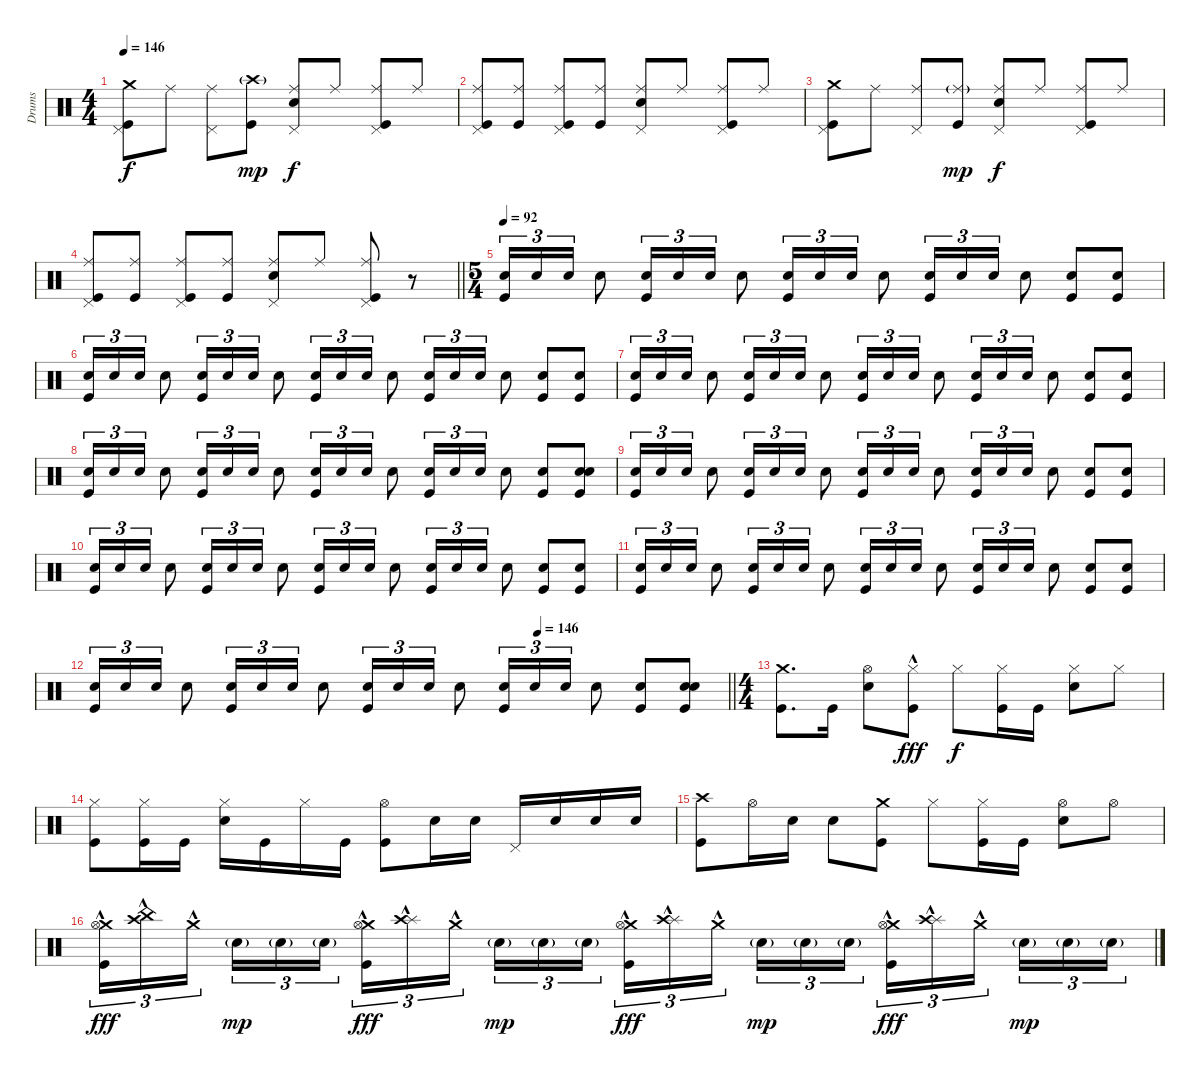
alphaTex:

\track ("Drums" "Drums") {instrument percussion}
\staff {score}
\articulation defaults
\ts (4 4)
\tempo 146
\clef neutral
\ks c
("Crash medium (hit)" "Pedal Hi-Hat (hit)" "Kick (hit)").8{dy f} "Ride (middle)".8 ("Ride (middle)" "Pedal Hi-Hat (hit)").8 ("Crash high (hit)"{g} "Kick (hit)").8{dy mp} ("Ride (middle)" "Pedal Hi-Hat (hit)" "Electric Snare (hit)").8{dy f} "Ride (middle)".8 ("Ride (middle)" "Pedal Hi-Hat (hit)" "Kick (hit)").8 "Ride (middle)".8 |
("Ride (middle)" "Pedal Hi-Hat (hit)" "Kick (hit)").8 ("Ride (middle)" "Kick (hit)").8 ("Ride (middle)" "Pedal Hi-Hat (hit)" "Kick (hit)").8 ("Ride (middle)" "Kick (hit)").8 ("Ride (middle)" "Pedal Hi-Hat (hit)" "Electric Snare (hit)").8 "Ride (middle)".8 ("Ride (middle)" "Pedal Hi-Hat (hit)" "Kick (hit)").8 "Ride (middle)".8 |
("Crash medium (hit)" "Pedal Hi-Hat (hit)" "Kick (hit)").8 "Ride (middle)".8 ("Ride (middle)" "Pedal Hi-Hat (hit)").8 ("Ride (middle)"{g} "Kick (hit)").8{dy mp} ("Ride (middle)" "Pedal Hi-Hat (hit)" "Electric Snare (hit)").8{dy f} "Ride (middle)".8 ("Ride (middle)" "Pedal Hi-Hat (hit)" "Kick (hit)").8 "Ride (middle)".8 |
\barLineRight lightlight
("Ride (middle)" "Pedal Hi-Hat (hit)" "Kick (hit)").8 ("Ride (middle)" "Kick (hit)").8 ("Ride (middle)" "Pedal Hi-Hat (hit)" "Kick (hit)").8 ("Ride (middle)" "Kick (hit)").8 ("Ride (middle)" "Pedal Hi-Hat (hit)" "Electric Snare (hit)").8 "Ride (middle)".8 ("Ride (middle)" "Pedal Hi-Hat (hit)" "Kick (hit)").8 r.8 |
\ts (5 4)
\tempo 92
("Electric Snare (hit)" "Kick (hit)").16{tu (3 2)} "Electric Snare (hit)".16{tu (3 2)} "Electric Snare (hit)".16{tu (3 2)} "Electric Snare (hit)".8 ("Electric Snare (hit)" "Kick (hit)").16{tu (3 2)} "Electric Snare (hit)".16{tu (3 2)} "Electric Snare (hit)".16{tu (3 2)} "Electric Snare (hit)".8 ("Electric Snare (hit)" "Kick (hit)").16{tu (3 2)} "Electric Snare (hit)".16{tu (3 2)} "Electric Snare (hit)".16{tu (3 2)} "Electric Snare (hit)".8 ("Electric Snare (hit)" "Kick (hit)").16{tu (3 2)} "Electric Snare (hit)".16{tu (3 2)} "Electric Snare (hit)".16{tu (3 2)} "Electric Snare (hit)".8 ("Electric Snare (hit)" "Kick (hit)").8 ("Electric Snare (hit)" "Kick (hit)").8 |
("Electric Snare (hit)" "Kick (hit)").16{tu (3 2)} "Electric Snare (hit)".16{tu (3 2)} "Electric Snare (hit)".16{tu (3 2)} "Electric Snare (hit)".8 ("Electric Snare (hit)" "Kick (hit)").16{tu (3 2)} "Electric Snare (hit)".16{tu (3 2)} "Electric Snare (hit)".16{tu (3 2)} "Electric Snare (hit)".8 ("Electric Snare (hit)" "Kick (hit)").16{tu (3 2)} "Electric Snare (hit)".16{tu (3 2)} "Electric Snare (hit)".16{tu (3 2)} "Electric Snare (hit)".8 ("Electric Snare (hit)" "Kick (hit)").16{tu (3 2)} "Electric Snare (hit)".16{tu (3 2)} "Electric Snare (hit)".16{tu (3 2)} "Electric Snare (hit)".8 ("Electric Snare (hit)" "Kick (hit)").8 ("Electric Snare (hit)" "Kick (hit)").8 |
("Electric Snare (hit)" "Kick (hit)").16{tu (3 2)} "Electric Snare (hit)".16{tu (3 2)} "Electric Snare (hit)".16{tu (3 2)} "Electric Snare (hit)".8 ("Electric Snare (hit)" "Kick (hit)").16{tu (3 2)} "Electric Snare (hit)".16{tu (3 2)} "Electric Snare (hit)".16{tu (3 2)} "Electric Snare (hit)".8 ("Electric Snare (hit)" "Kick (hit)").16{tu (3 2)} "Electric Snare (hit)".16{tu (3 2)} "Electric Snare (hit)".16{tu (3 2)} "Electric Snare (hit)".8 ("Electric Snare (hit)" "Kick (hit)").16{tu (3 2)} "Electric Snare (hit)".16{tu (3 2)} "Electric Snare (hit)".16{tu (3 2)} "Electric Snare (hit)".8 ("Electric Snare (hit)" "Kick (hit)").8 ("Electric Snare (hit)" "Kick (hit)").8 |
("Electric Snare (hit)" "Kick (hit)").16{tu (3 2)} "Electric Snare (hit)".16{tu (3 2)} "Electric Snare (hit)".16{tu (3 2)} "Electric Snare (hit)".8 ("Electric Snare (hit)" "Kick (hit)").16{tu (3 2)} "Electric Snare (hit)".16{tu (3 2)} "Electric Snare (hit)".16{tu (3 2)} "Electric Snare (hit)".8 ("Electric Snare (hit)" "Kick (hit)").16{tu (3 2)} "Electric Snare (hit)".16{tu (3 2)} "Electric Snare (hit)".16{tu (3 2)} "Electric Snare (hit)".8 ("Electric Snare (hit)" "Kick (hit)").16{tu (3 2)} "Electric Snare (hit)".16{tu (3 2)} "Electric Snare (hit)".16{tu (3 2)} "Electric Snare (hit)".8 ("Electric Snare (hit)" "Kick (hit)").8 ("Electric Snare (hit)" "Electric Snare (hit)" "Kick (hit)").8 |
("Electric Snare (hit)" "Kick (hit)").16{tu (3 2)} "Electric Snare (hit)".16{tu (3 2)} "Electric Snare (hit)".16{tu (3 2)} "Electric Snare (hit)".8 ("Electric Snare (hit)" "Kick (hit)").16{tu (3 2)} "Electric Snare (hit)".16{tu (3 2)} "Electric Snare (hit)".16{tu (3 2)} "Electric Snare (hit)".8 ("Electric Snare (hit)" "Kick (hit)").16{tu (3 2)} "Electric Snare (hit)".16{tu (3 2)} "Electric Snare (hit)".16{tu (3 2)} "Electric Snare (hit)".8 ("Electric Snare (hit)" "Kick (hit)").16{tu (3 2)} "Electric Snare (hit)".16{tu (3 2)} "Electric Snare (hit)".16{tu (3 2)} "Electric Snare (hit)".8 ("Electric Snare (hit)" "Kick (hit)").8 ("Electric Snare (hit)" "Kick (hit)").8 |
("Electric Snare (hit)" "Kick (hit)").16{tu (3 2)} "Electric Snare (hit)".16{tu (3 2)} "Electric Snare (hit)".16{tu (3 2)} "Electric Snare (hit)".8 ("Electric Snare (hit)" "Kick (hit)").16{tu (3 2)} "Electric Snare (hit)".16{tu (3 2)} "Electric Snare (hit)".16{tu (3 2)} "Electric Snare (hit)".8 ("Electric Snare (hit)" "Kick (hit)").16{tu (3 2)} "Electric Snare (hit)".16{tu (3 2)} "Electric Snare (hit)".16{tu (3 2)} "Electric Snare (hit)".8 ("Electric Snare (hit)" "Kick (hit)").16{tu (3 2)} "Electric Snare (hit)".16{tu (3 2)} "Electric Snare (hit)".16{tu (3 2)} "Electric Snare (hit)".8 ("Electric Snare (hit)" "Kick (hit)").8 ("Electric Snare (hit)" "Kick (hit)").8 |
("Electric Snare (hit)" "Kick (hit)").16{tu (3 2)} "Electric Snare (hit)".16{tu (3 2)} "Electric Snare (hit)".16{tu (3 2)} "Electric Snare (hit)".8 ("Electric Snare (hit)" "Kick (hit)").16{tu (3 2)} "Electric Snare (hit)".16{tu (3 2)} "Electric Snare (hit)".16{tu (3 2)} "Electric Snare (hit)".8 ("Electric Snare (hit)" "Kick (hit)").16{tu (3 2)} "Electric Snare (hit)".16{tu (3 2)} "Electric Snare (hit)".16{tu (3 2)} "Electric Snare (hit)".8 ("Electric Snare (hit)" "Kick (hit)").16{tu (3 2)} "Electric Snare (hit)".16{tu (3 2)} "Electric Snare (hit)".16{tu (3 2)} "Electric Snare (hit)".8 ("Electric Snare (hit)" "Kick (hit)").8 ("Electric Snare (hit)" "Kick (hit)").8 |
\tempo (146 0.7)
\barLineRight lightlight
("Electric Snare (hit)" "Kick (hit)").16{tu (3 2)} "Electric Snare (hit)".16{tu (3 2)} "Electric Snare (hit)".16{tu (3 2)} "Electric Snare (hit)".8 ("Electric Snare (hit)" "Kick (hit)").16{tu (3 2)} "Electric Snare (hit)".16{tu (3 2)} "Electric Snare (hit)".16{tu (3 2)} "Electric Snare (hit)".8 ("Electric Snare (hit)" "Kick (hit)").16{tu (3 2)} "Electric Snare (hit)".16{tu (3 2)} "Electric Snare (hit)".16{tu (3 2)} "Electric Snare (hit)".8 ("Electric Snare (hit)" "Kick (hit)").16{tu (3 2)} "Electric Snare (hit)".16{tu (3 2)} "Electric Snare (hit)".16{tu (3 2)} "Electric Snare (hit)".8 ("Electric Snare (hit)" "Kick (hit)").8 ("Electric Snare (hit)" "Electric Snare (hit)" "Kick (hit)").8 |
\ts (4 4)
("Crash medium (hit)" "Kick (hit)").8{d} "Kick (hit)".16 ("Hi-Hat (open)" "Electric Snare (hit)").8 ("Hi-Hat (closed)"{hac} "Kick (hit)"{hac}).8{dy fff} "Hi-Hat (closed)".8{dy f} ("Hi-Hat (closed)" "Kick (hit)").16 "Kick (hit)".16 ("Hi-Hat (closed)" "Electric Snare (hit)").8 "Hi-Hat (closed)".8 |
("Hi-Hat (closed)" "Kick (hit)").8 ("Hi-Hat (closed)" "Kick (hit)").16 "Kick (hit)".16 ("Hi-Hat (closed)" "Electric Snare (hit)").16 "Kick (hit)".16 "Hi-Hat (closed)".16 "Kick (hit)".16 ("Hi-Hat (open)" "Kick (hit)").8 "Electric Snare (hit)".16 "Electric Snare (hit)".16 "Pedal Hi-Hat (hit)".16 "Electric Snare (hit)".16 "Electric Snare (hit)".16 "Electric Snare (hit)".16 |
("Crash high (hit)" "Kick (hit)").8 "Hi-Hat (open)".16 "Electric Snare (hit)".16 "Electric Snare (hit)".8 ("Crash medium (hit)" "Kick (hit)").8 "Hi-Hat (closed)".8 ("Hi-Hat (closed)" "Kick (hit)").16 "Kick (hit)".16 ("Hi-Hat (open)" "Electric Snare (hit)").8 "Hi-Hat (open)".8 |
("Crash medium (hit)"{hac} "Hi-Hat (open)"{hac} "Kick (hit)"{hac}).16{tu (3 2) dy fff} ("China (hit)"{hac} "Crash high (hit)"{hac}).16{tu (3 2)} "Crash medium (hit)"{hac}.16{tu (3 2) beam splitsecondary} "Electric Snare (hit)"{g}.16{tu (3 2) dy mp} "Electric Snare (hit)"{g}.16{tu (3 2)} "Electric Snare (hit)"{g}.16{tu (3 2)} ("Crash medium (hit)"{hac} "Hi-Hat (open)"{hac} "Kick (hit)"{hac}).16{tu (3 2) dy fff} ("Splash (hit)"{hac} "Crash high (hit)"{hac}).16{tu (3 2)} "Crash medium (hit)"{hac}.16{tu (3 2) beam splitsecondary} "Electric Snare (hit)"{g}.16{tu (3 2) dy mp} "Electric Snare (hit)"{g}.16{tu (3 2)} "Electric Snare (hit)"{g}.16{tu (3 2)} ("Crash medium (hit)"{hac} "Hi-Hat (open)"{hac} "Kick (hit)"{hac}).16{tu (3 2) dy fff} ("Splash (hit)"{hac} "Crash high (hit)"{hac}).16{tu (3 2)} "Crash medium (hit)"{hac}.16{tu (3 2) beam splitsecondary} "Electric Snare (hit)"{g}.16{tu (3 2) dy mp} "Electric Snare (hit)"{g}.16{tu (3 2)} "Electric Snare (hit)"{g}.16{tu (3 2)} ("Crash medium (hit)"{hac} "Hi-Hat (open)"{hac} "Kick (hit)"{hac}).16{tu (3 2) dy fff} ("Splash (hit)"{hac} "Crash high (hit)"{hac}).16{tu (3 2)} "Crash medium (hit)"{hac}.16{tu (3 2) beam splitsecondary} "Electric Snare (hit)"{g}.16{tu (3 2) dy mp} "Electric Snare (hit)"{g}.16{tu (3 2)} "Electric Snare (hit)"{g}.16{tu (3 2)}
